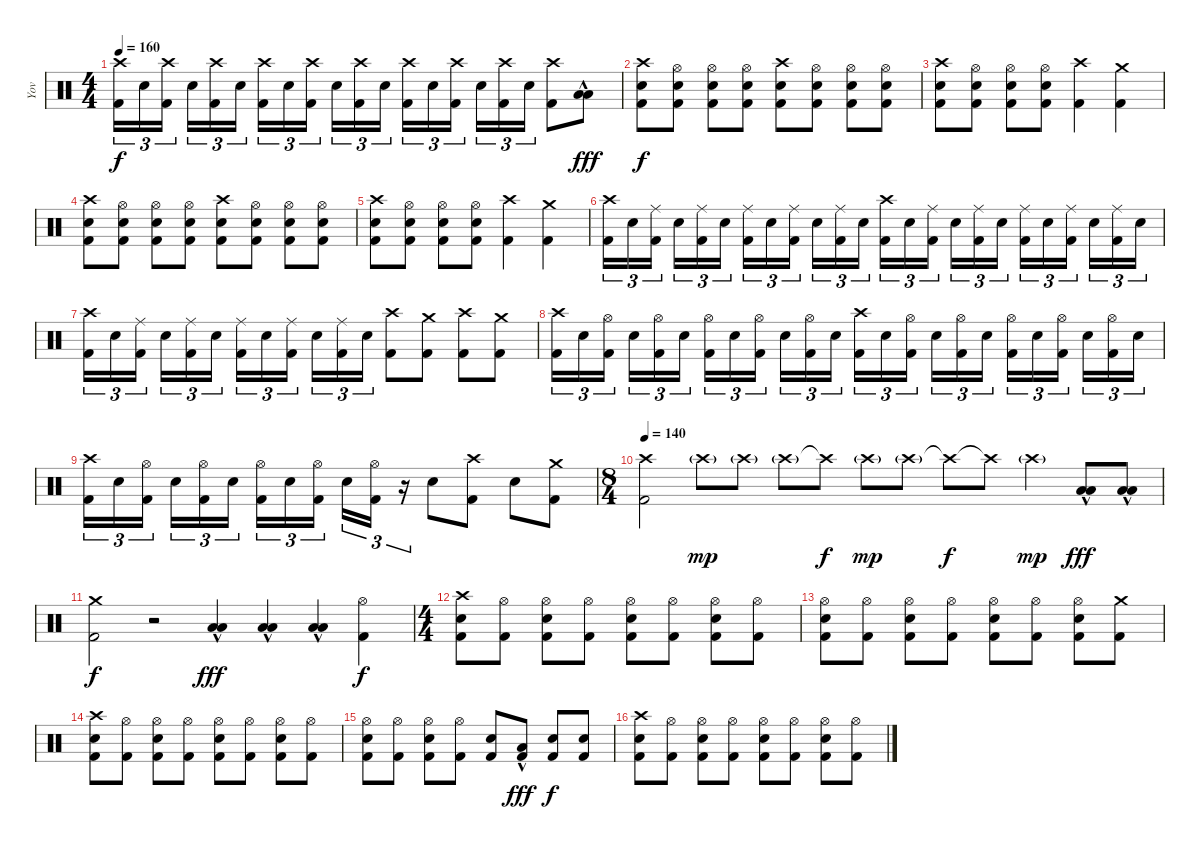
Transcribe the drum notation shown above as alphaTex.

\track ("Yov" "Yov") {instrument percussion}
\staff {score}
\articulation defaults
\ts (4 4)
\tempo 160
\clef neutral
\ks c
("Crash high (hit)" "Kick (hit) 2").16{tu (3 2) dy f} "Electric Snare (hit)".16{tu (3 2)} ("Crash high (hit)" "Kick (hit) 2").16{tu (3 2) beam splitsecondary} "Electric Snare (hit)".16{tu (3 2)} ("Crash high (hit)" "Kick (hit) 2").16{tu (3 2)} "Electric Snare (hit)".16{tu (3 2)} ("Crash high (hit)" "Kick (hit) 2").16{tu (3 2)} "Electric Snare (hit)".16{tu (3 2)} ("Crash high (hit)" "Kick (hit) 2").16{tu (3 2) beam splitsecondary} "Electric Snare (hit)".16{tu (3 2)} ("Crash high (hit)" "Kick (hit) 2").16{tu (3 2)} "Electric Snare (hit)".16{tu (3 2)} ("Crash high (hit)" "Kick (hit) 2").16{tu (3 2)} "Electric Snare (hit)".16{tu (3 2)} ("Crash high (hit)" "Kick (hit) 2").16{tu (3 2) beam splitsecondary} "Electric Snare (hit)".16{tu (3 2)} ("Crash high (hit)" "Kick (hit) 2").16{tu (3 2)} "Electric Snare (hit)".16{tu (3 2)} ("Crash high (hit)" "Kick (hit) 2").8 ("Low Tom (hit)"{hac} "Low Tom (hit)"{hac}).8{dy fff} |
("Crash high (hit)" "Electric Snare (hit)" "Kick (hit) 2").8{dy f} ("Hi-Hat (open)" "Electric Snare (hit)" "Kick (hit) 2").8 ("Hi-Hat (open)" "Electric Snare (hit)" "Kick (hit) 2").8 ("Hi-Hat (open)" "Electric Snare (hit)" "Kick (hit) 2").8 ("Crash high (hit)" "Electric Snare (hit)" "Kick (hit) 2").8 ("Hi-Hat (open)" "Electric Snare (hit)" "Kick (hit) 2").8 ("Hi-Hat (open)" "Electric Snare (hit)" "Kick (hit) 2").8 ("Hi-Hat (open)" "Electric Snare (hit)" "Kick (hit) 2").8 |
("Crash high (hit)" "Electric Snare (hit)" "Kick (hit) 2").8 ("Hi-Hat (open)" "Electric Snare (hit)" "Kick (hit) 2").8 ("Hi-Hat (open)" "Electric Snare (hit)" "Kick (hit) 2").8 ("Hi-Hat (open)" "Electric Snare (hit)" "Kick (hit) 2").8 ("Crash high (hit)" "Kick (hit) 2").4 ("Crash medium (hit)" "Kick (hit) 2").4 |
("Crash high (hit)" "Electric Snare (hit)" "Kick (hit) 2").8 ("Hi-Hat (open)" "Electric Snare (hit)" "Kick (hit) 2").8 ("Hi-Hat (open)" "Electric Snare (hit)" "Kick (hit) 2").8 ("Hi-Hat (open)" "Electric Snare (hit)" "Kick (hit) 2").8 ("Crash high (hit)" "Electric Snare (hit)" "Kick (hit) 2").8 ("Hi-Hat (open)" "Electric Snare (hit)" "Kick (hit) 2").8 ("Hi-Hat (open)" "Electric Snare (hit)" "Kick (hit) 2").8 ("Hi-Hat (open)" "Electric Snare (hit)" "Kick (hit) 2").8 |
("Crash high (hit)" "Electric Snare (hit)" "Kick (hit) 2").8 ("Hi-Hat (open)" "Electric Snare (hit)" "Kick (hit) 2").8 ("Hi-Hat (open)" "Electric Snare (hit)" "Kick (hit) 2").8 ("Hi-Hat (open)" "Electric Snare (hit)" "Kick (hit) 2").8 ("Crash high (hit)" "Kick (hit) 2").4 ("Crash medium (hit)" "Kick (hit) 2").4 |
("Crash high (hit)" "Kick (hit) 2").16{tu (3 2)} "Electric Snare (hit)".16{tu (3 2)} ("Ride (middle)" "Kick (hit) 2").16{tu (3 2) beam splitsecondary} "Electric Snare (hit)".16{tu (3 2)} ("Ride (middle)" "Kick (hit) 2").16{tu (3 2)} "Electric Snare (hit)".16{tu (3 2)} ("Ride (middle)" "Kick (hit) 2").16{tu (3 2)} "Electric Snare (hit)".16{tu (3 2)} ("Ride (middle)" "Kick (hit) 2").16{tu (3 2) beam splitsecondary} "Electric Snare (hit)".16{tu (3 2)} ("Ride (middle)" "Kick (hit) 2").16{tu (3 2)} "Electric Snare (hit)".16{tu (3 2)} ("Crash high (hit)" "Kick (hit) 2").16{tu (3 2)} "Electric Snare (hit)".16{tu (3 2)} ("Ride (middle)" "Kick (hit) 2").16{tu (3 2) beam splitsecondary} "Electric Snare (hit)".16{tu (3 2)} ("Ride (middle)" "Kick (hit) 2").16{tu (3 2)} "Electric Snare (hit)".16{tu (3 2)} ("Ride (middle)" "Kick (hit) 2").16{tu (3 2)} "Electric Snare (hit)".16{tu (3 2)} ("Ride (middle)" "Kick (hit) 2").16{tu (3 2) beam splitsecondary} "Electric Snare (hit)".16{tu (3 2)} ("Ride (middle)" "Kick (hit) 2").16{tu (3 2)} "Electric Snare (hit)".16{tu (3 2)} |
("Crash high (hit)" "Kick (hit) 2").16{tu (3 2)} "Electric Snare (hit)".16{tu (3 2)} ("Ride (middle)" "Kick (hit) 2").16{tu (3 2) beam splitsecondary} "Electric Snare (hit)".16{tu (3 2)} ("Ride (middle)" "Kick (hit) 2").16{tu (3 2)} "Electric Snare (hit)".16{tu (3 2)} ("Ride (middle)" "Kick (hit) 2").16{tu (3 2)} "Electric Snare (hit)".16{tu (3 2)} ("Ride (middle)" "Kick (hit) 2").16{tu (3 2) beam splitsecondary} "Electric Snare (hit)".16{tu (3 2)} ("Ride (middle)" "Kick (hit) 2").16{tu (3 2)} "Electric Snare (hit)".16{tu (3 2)} ("Crash high (hit)" "Kick (hit) 2").8 ("Crash medium (hit)" "Kick (hit) 2").8 ("Crash high (hit)" "Kick (hit) 2").8 ("Crash medium (hit)" "Kick (hit) 2").8 |
("Crash high (hit)" "Kick (hit) 2").16{tu (3 2)} "Electric Snare (hit)".16{tu (3 2)} ("Hi-Hat (open)" "Kick (hit) 2").16{tu (3 2) beam splitsecondary} "Electric Snare (hit)".16{tu (3 2)} ("Hi-Hat (open)" "Kick (hit) 2").16{tu (3 2)} "Electric Snare (hit)".16{tu (3 2)} ("Hi-Hat (open)" "Kick (hit) 2").16{tu (3 2)} "Electric Snare (hit)".16{tu (3 2)} ("Hi-Hat (open)" "Kick (hit) 2").16{tu (3 2) beam splitsecondary} "Electric Snare (hit)".16{tu (3 2)} ("Hi-Hat (open)" "Kick (hit) 2").16{tu (3 2)} "Electric Snare (hit)".16{tu (3 2)} ("Crash high (hit)" "Kick (hit) 2").16{tu (3 2)} "Electric Snare (hit)".16{tu (3 2)} ("Hi-Hat (open)" "Kick (hit) 2").16{tu (3 2) beam splitsecondary} "Electric Snare (hit)".16{tu (3 2)} ("Hi-Hat (open)" "Kick (hit) 2").16{tu (3 2)} "Electric Snare (hit)".16{tu (3 2)} ("Hi-Hat (open)" "Kick (hit) 2").16{tu (3 2)} "Electric Snare (hit)".16{tu (3 2)} ("Hi-Hat (open)" "Kick (hit) 2").16{tu (3 2) beam splitsecondary} "Electric Snare (hit)".16{tu (3 2)} ("Hi-Hat (open)" "Kick (hit) 2").16{tu (3 2)} "Electric Snare (hit)".16{tu (3 2)} |
("Crash high (hit)" "Kick (hit) 2").16{tu (3 2)} "Electric Snare (hit)".16{tu (3 2)} ("Hi-Hat (open)" "Kick (hit) 2").16{tu (3 2) beam splitsecondary} "Electric Snare (hit)".16{tu (3 2)} ("Hi-Hat (open)" "Kick (hit) 2").16{tu (3 2)} "Electric Snare (hit)".16{tu (3 2)} ("Hi-Hat (open)" "Kick (hit) 2").16{tu (3 2)} "Electric Snare (hit)".16{tu (3 2)} ("Hi-Hat (open)" "Kick (hit) 2").16{tu (3 2) beam splitsecondary} "Electric Snare (hit)".16{tu (3 2)} ("Hi-Hat (open)" "Kick (hit) 2").16{tu (3 2)} r.16{tu (3 2)} "Electric Snare (hit)".8 ("Crash high (hit)" "Kick (hit) 2").8 "Electric Snare (hit)".8 ("Crash medium (hit)" "Kick (hit) 2").8 |
\ts (8 4)
\tempo 140
("Crash high (hit)" "Kick (hit) 2").2 "Crash high (hit)"{g}.8{dy mp} "Crash high (hit)"{g}.8 "Crash high (hit)"{g}.8 "Crash high (hit)"{t}.8{dy f} "Crash high (hit)"{g}.8{dy mp} "Crash high (hit)"{g}.8 "Crash high (hit)"{t}.8{dy f} "Crash high (hit)"{t}.8 "Crash high (hit)"{g}.4{dy mp} ("Low Floor Tom (hit)"{hac} "Low Floor Tom (hit)"{hac}).8{dy fff} ("Low Floor Tom (hit)"{hac} "Low Floor Tom (hit)"{hac}).8 |
("Crash medium (hit)" "Kick (hit) 2").2{dy f} r.2 ("Low Floor Tom (hit)"{hac} "Low Floor Tom (hit)"{hac}).4{dy fff} ("Low Tom (hit)"{hac} "Low Tom (hit)"{hac}).4 ("Low Floor Tom (hit)" "Low Floor Tom (hit)"{hac}).4 ("Hi-Hat (open)" "Kick (hit) 2").4{dy f} |
\ts (4 4)
("Crash high (hit)" "Electric Snare (hit)" "Kick (hit) 2").8 ("Hi-Hat (open)" "Kick (hit) 2").8 ("Hi-Hat (open)" "Electric Snare (hit)" "Kick (hit) 2").8 ("Hi-Hat (open)" "Kick (hit) 2").8 ("Hi-Hat (open)" "Electric Snare (hit)" "Kick (hit) 2").8 ("Hi-Hat (open)" "Kick (hit) 2").8 ("Hi-Hat (open)" "Electric Snare (hit)" "Kick (hit) 2").8 ("Hi-Hat (open)" "Kick (hit) 2").8 |
("Hi-Hat (open)" "Electric Snare (hit)" "Kick (hit) 2").8 ("Hi-Hat (open)" "Kick (hit) 2").8 ("Hi-Hat (open)" "Electric Snare (hit)" "Kick (hit) 2").8 ("Hi-Hat (open)" "Kick (hit) 2").8 ("Hi-Hat (open)" "Electric Snare (hit)" "Kick (hit) 2").8 ("Hi-Hat (open)" "Kick (hit) 2").8 ("Hi-Hat (open)" "Electric Snare (hit)" "Kick (hit) 2").8 ("Crash medium (hit)" "Kick (hit) 2").8 |
("Crash high (hit)" "Electric Snare (hit)" "Kick (hit) 2").8 ("Hi-Hat (open)" "Kick (hit) 2").8 ("Hi-Hat (open)" "Electric Snare (hit)" "Kick (hit) 2").8 ("Hi-Hat (open)" "Kick (hit) 2").8 ("Hi-Hat (open)" "Electric Snare (hit)" "Kick (hit) 2").8 ("Hi-Hat (open)" "Kick (hit) 2").8 ("Hi-Hat (open)" "Electric Snare (hit)" "Kick (hit) 2").8 ("Hi-Hat (open)" "Kick (hit) 2").8 |
("Hi-Hat (open)" "Electric Snare (hit)" "Kick (hit) 2").8 ("Hi-Hat (open)" "Kick (hit) 2").8 ("Hi-Hat (open)" "Electric Snare (hit)" "Kick (hit) 2").8 ("Hi-Hat (open)" "Kick (hit) 2").8 ("Electric Snare (hit)" "Kick (hit) 2").8 ("Low Tom (hit)"{hac} "Kick (hit) 2").8{dy fff} ("Electric Snare (hit)" "Kick (hit) 2").8{dy f} ("Electric Snare (hit)" "Kick (hit) 2").8 |
("Crash high (hit)" "Electric Snare (hit)" "Kick (hit) 2").8 ("Hi-Hat (open)" "Kick (hit) 2").8 ("Hi-Hat (open)" "Electric Snare (hit)" "Kick (hit) 2").8 ("Hi-Hat (open)" "Kick (hit) 2").8 ("Hi-Hat (open)" "Electric Snare (hit)" "Kick (hit) 2").8 ("Hi-Hat (open)" "Kick (hit) 2").8 ("Hi-Hat (open)" "Electric Snare (hit)" "Kick (hit) 2").8 ("Hi-Hat (open)" "Kick (hit) 2").8
